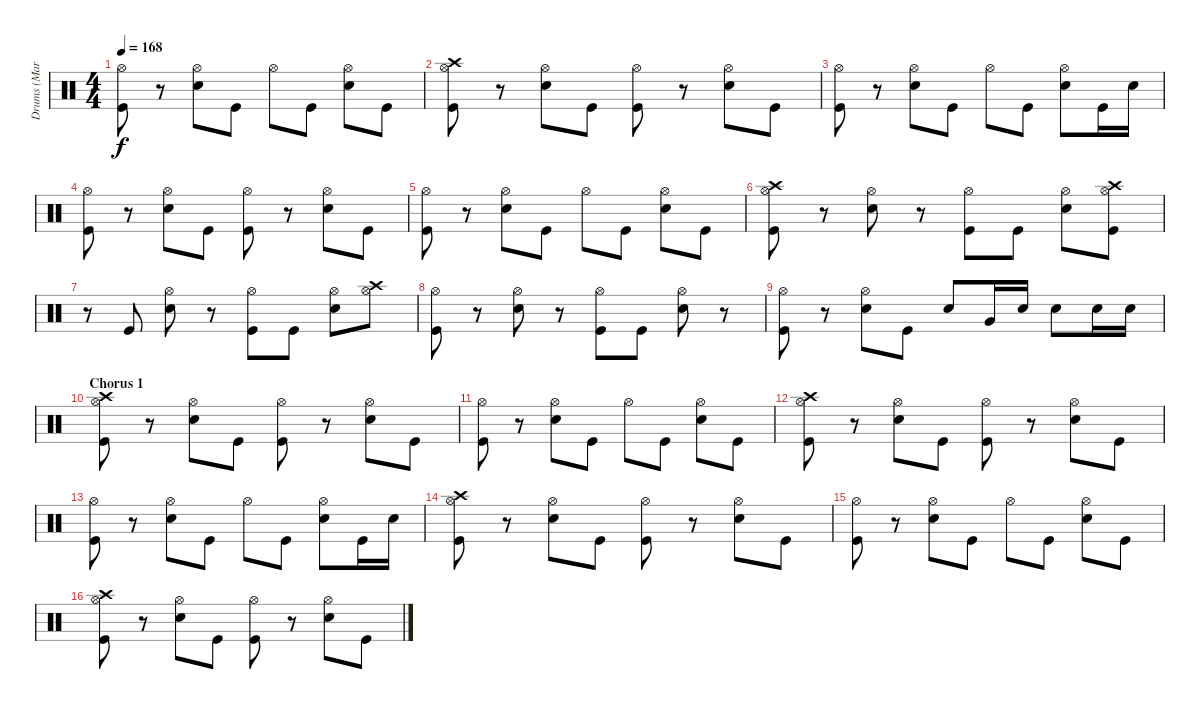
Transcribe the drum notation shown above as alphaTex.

\track ("Drums (Mark Michals)" "Drums (Mar") {instrument percussion}
\staff {score}
\articulation defaults
\ts (4 4)
\tempo 168
\clef neutral
\ks c
("Hi-Hat (open)" "Kick (hit)").8{dy f} r.8 ("Hi-Hat (open)" "Snare (hit) 2").8 "Kick (hit)".8 "Hi-Hat (open)".8 "Kick (hit)".8 ("Hi-Hat (open)" "Snare (hit) 2").8 "Kick (hit)".8 |
("Hi-Hat (open)" "Crash high (hit)" "Kick (hit)").8 r.8 ("Hi-Hat (open)" "Snare (hit) 2").8 "Kick (hit)".8 ("Hi-Hat (open)" "Kick (hit)").8 r.8 ("Hi-Hat (open)" "Snare (hit) 2").8 "Kick (hit)".8 |
("Hi-Hat (open)" "Kick (hit)").8 r.8 ("Hi-Hat (open)" "Snare (hit) 2").8 "Kick (hit)".8 "Hi-Hat (open)".8 "Kick (hit)".8 ("Hi-Hat (open)" "Snare (hit) 2").8 "Kick (hit)".16 "Snare (hit) 2".16 |
("Hi-Hat (open)" "Kick (hit)").8 r.8 ("Hi-Hat (open)" "Snare (hit) 2").8 "Kick (hit)".8 ("Hi-Hat (open)" "Kick (hit)").8 r.8 ("Hi-Hat (open)" "Snare (hit) 2").8 "Kick (hit)".8 |
("Hi-Hat (open)" "Kick (hit)").8 r.8 ("Hi-Hat (open)" "Snare (hit) 2").8 "Kick (hit)".8 "Hi-Hat (open)".8 "Kick (hit)".8 ("Hi-Hat (open)" "Snare (hit) 2").8 "Kick (hit)".8 |
("Hi-Hat (open)" "Crash high (hit)" "Kick (hit)").8 r.8 ("Hi-Hat (open)" "Snare (hit) 2").8 r.8 ("Hi-Hat (open)" "Kick (hit)").8 "Kick (hit)".8 ("Hi-Hat (open)" "Snare (hit) 2").8 ("Hi-Hat (open)" "Crash high (hit)" "Kick (hit)").8 |
r.8 "Kick (hit)".8 ("Hi-Hat (open)" "Snare (hit) 2").8 r.8 ("Hi-Hat (open)" "Kick (hit)").8 "Kick (hit)".8 ("Hi-Hat (open)" "Snare (hit) 2").8 ("Hi-Hat (open)" "Crash high (hit)").8 |
("Hi-Hat (open)" "Kick (hit)").8 r.8 ("Hi-Hat (open)" "Snare (hit) 2").8 r.8 ("Hi-Hat (open)" "Kick (hit)").8 "Kick (hit)".8 ("Hi-Hat (open)" "Snare (hit) 2").8 r.8 |
("Hi-Hat (open)" "Kick (hit)").8 r.8 ("Hi-Hat (open)" "Snare (hit) 2").8 "Kick (hit)".8 "Snare (hit) 2".8 "Very Low Tom (hit)".16 "Snare (hit) 2".16 "Snare (hit) 2".8 "Snare (hit) 2".16 "Snare (hit) 2".16 |
\section ("" "Chorus 1")
("Hi-Hat (open)" "Crash high (hit)" "Kick (hit)").8 r.8 ("Hi-Hat (open)" "Snare (hit) 2").8 "Kick (hit)".8 ("Hi-Hat (open)" "Kick (hit)").8 r.8 ("Hi-Hat (open)" "Snare (hit) 2").8 "Kick (hit)".8 |
("Hi-Hat (open)" "Kick (hit)").8 r.8 ("Hi-Hat (open)" "Snare (hit) 2").8 "Kick (hit)".8 "Hi-Hat (open)".8 "Kick (hit)".8 ("Hi-Hat (open)" "Snare (hit) 2").8 "Kick (hit)".8 |
("Hi-Hat (open)" "Crash high (hit)" "Kick (hit)").8 r.8 ("Hi-Hat (open)" "Snare (hit) 2").8 "Kick (hit)".8 ("Hi-Hat (open)" "Kick (hit)").8 r.8 ("Hi-Hat (open)" "Snare (hit) 2").8 "Kick (hit)".8 |
("Hi-Hat (open)" "Kick (hit)").8 r.8 ("Hi-Hat (open)" "Snare (hit) 2").8 "Kick (hit)".8 "Hi-Hat (open)".8 "Kick (hit)".8 ("Hi-Hat (open)" "Snare (hit) 2").8 "Kick (hit)".16 "Snare (hit) 2".16 |
("Hi-Hat (open)" "Crash high (hit)" "Kick (hit)").8 r.8 ("Hi-Hat (open)" "Snare (hit) 2").8 "Kick (hit)".8 ("Hi-Hat (open)" "Kick (hit)").8 r.8 ("Hi-Hat (open)" "Snare (hit) 2").8 "Kick (hit)".8 |
("Hi-Hat (open)" "Kick (hit)").8 r.8 ("Hi-Hat (open)" "Snare (hit) 2").8 "Kick (hit)".8 "Hi-Hat (open)".8 "Kick (hit)".8 ("Hi-Hat (open)" "Snare (hit) 2").8 "Kick (hit)".8 |
("Hi-Hat (open)" "Crash high (hit)" "Kick (hit)").8 r.8 ("Hi-Hat (open)" "Snare (hit) 2").8 "Kick (hit)".8 ("Hi-Hat (open)" "Kick (hit)").8 r.8 ("Hi-Hat (open)" "Snare (hit) 2").8 "Kick (hit)".8
